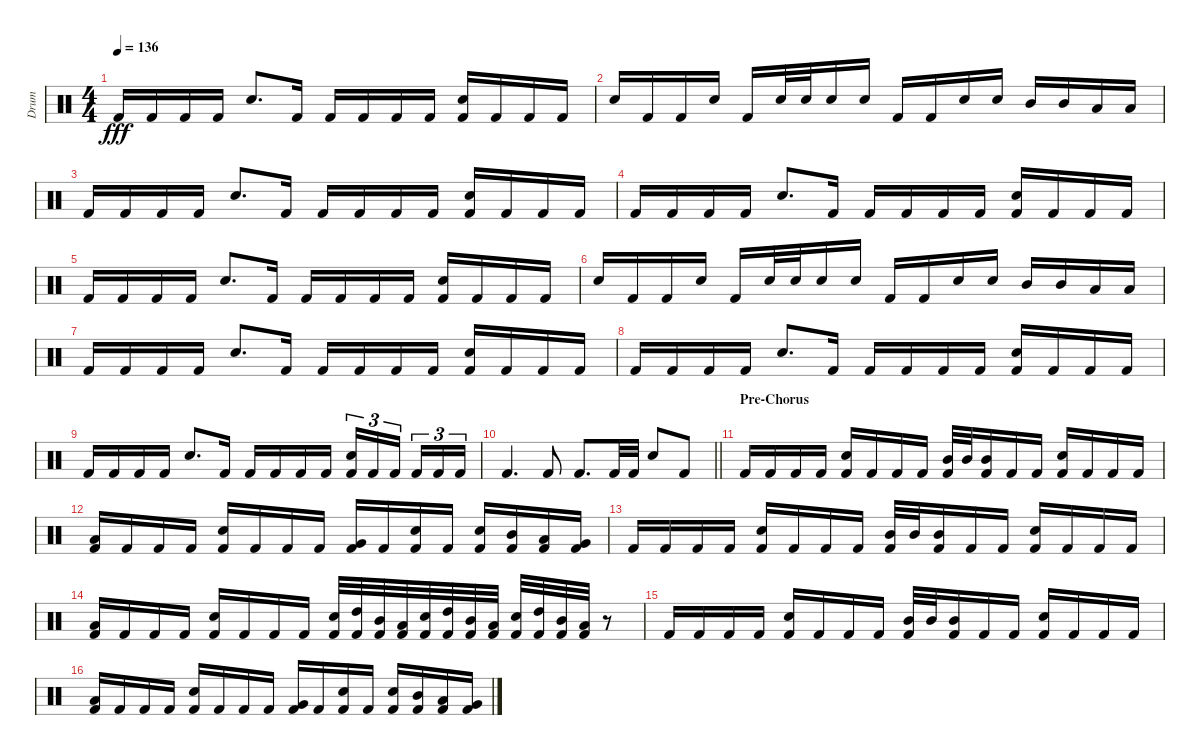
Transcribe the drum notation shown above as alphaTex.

\track ("Drum" "Drum") {instrument percussion}
\staff {score}
\articulation defaults
\ts (4 4)
\tempo 136
\clef neutral
\ks c "Kick (hit) 2".16{dy fff} "Kick (hit) 2".16 "Kick (hit) 2".16 "Kick (hit) 2".16 "Electric Snare (hit)".8{d} "Kick (hit) 2".16 "Kick (hit) 2".16 "Kick (hit) 2".16 "Kick (hit) 2".16 "Kick (hit) 2".16
("Electric Snare (hit)" "Kick (hit) 2").16 "Kick (hit) 2".16 "Kick (hit) 2".16 "Kick (hit) 2".16 |
"Electric Snare (hit)".16 "Kick (hit) 2".16 "Kick (hit) 2".16 "Electric Snare (hit)".16 "Kick (hit) 2".16 "Electric Snare (hit)".32 "Electric Snare (hit)".32 "Electric Snare (hit)".16 "Electric Snare (hit)".16 "Kick (hit) 2".16 "Kick (hit) 2".16 "Electric Snare (hit)".16 "Electric Snare (hit)".16 "Mid Tom (hit)".16 "Mid Tom (hit)".16 "Low Tom (hit)".16 "Low Tom (hit)".16 |
"Kick (hit) 2".16 "Kick (hit) 2".16 "Kick (hit) 2".16 "Kick (hit) 2".16 "Electric Snare (hit)".8{d} "Kick (hit) 2".16 "Kick (hit) 2".16 "Kick (hit) 2".16 "Kick (hit) 2".16 "Kick (hit) 2".16 ("Electric Snare (hit)" "Kick (hit) 2").16 "Kick (hit) 2".16 "Kick (hit) 2".16 "Kick (hit) 2".16 |
"Kick (hit) 2".16 "Kick (hit) 2".16 "Kick (hit) 2".16 "Kick (hit) 2".16 "Electric Snare (hit)".8{d} "Kick (hit) 2".16 "Kick (hit) 2".16 "Kick (hit) 2".16 "Kick (hit) 2".16 "Kick (hit) 2".16 ("Electric Snare (hit)" "Kick (hit) 2").16 "Kick (hit) 2".16 "Kick (hit) 2".16 "Kick (hit) 2".16 |
"Kick (hit) 2".16 "Kick (hit) 2".16 "Kick (hit) 2".16 "Kick (hit) 2".16 "Electric Snare (hit)".8{d} "Kick (hit) 2".16 "Kick (hit) 2".16 "Kick (hit) 2".16 "Kick (hit) 2".16 "Kick (hit) 2".16 ("Electric Snare (hit)" "Kick (hit) 2").16 "Kick (hit) 2".16 "Kick (hit) 2".16 "Kick (hit) 2".16 |
"Electric Snare (hit)".16 "Kick (hit) 2".16 "Kick (hit) 2".16 "Electric Snare (hit)".16 "Kick (hit) 2".16 "Electric Snare (hit)".32 "Electric Snare (hit)".32 "Electric Snare (hit)".16 "Electric Snare (hit)".16 "Kick (hit) 2".16 "Kick (hit) 2".16 "Electric Snare (hit)".16 "Electric Snare (hit)".16 "Mid Tom (hit)".16 "Mid Tom (hit)".16 "Low Tom (hit)".16 "Low Tom (hit)".16 |
"Kick (hit) 2".16 "Kick (hit) 2".16 "Kick (hit) 2".16 "Kick (hit) 2".16 "Electric Snare (hit)".8{d} "Kick (hit) 2".16 "Kick (hit) 2".16 "Kick (hit) 2".16 "Kick (hit) 2".16 "Kick (hit) 2".16 ("Electric Snare (hit)" "Kick (hit) 2").16 "Kick (hit) 2".16 "Kick (hit) 2".16 "Kick (hit) 2".16 |
"Kick (hit) 2".16 "Kick (hit) 2".16 "Kick (hit) 2".16 "Kick (hit) 2".16 "Electric Snare (hit)".8{d} "Kick (hit) 2".16 "Kick (hit) 2".16 "Kick (hit) 2".16 "Kick (hit) 2".16 "Kick (hit) 2".16 ("Electric Snare (hit)" "Kick (hit) 2").16 "Kick (hit) 2".16 "Kick (hit) 2".16 "Kick (hit) 2".16 |
"Kick (hit) 2".16 "Kick (hit) 2".16 "Kick (hit) 2".16 "Kick (hit) 2".16 "Electric Snare (hit)".8{d} "Kick (hit) 2".16 "Kick (hit) 2".16 "Kick (hit) 2".16 "Kick (hit) 2".16 "Kick (hit) 2".16 ("Electric Snare (hit)" "Kick (hit) 2").16{tu (3 2)} "Kick (hit) 2".16{tu (3 2)} "Kick (hit) 2".16{tu (3 2) beam splitsecondary} "Kick (hit) 2".16{tu (3 2)} "Kick (hit) 2".16{tu (3 2)} "Kick (hit) 2".16{tu (3 2)} |
\barLineRight lightlight "Kick (hit) 2".4{d} "Kick (hit) 2".8 "Kick (hit) 2".8{d} "Kick (hit) 2".32 "Kick (hit) 2".32 "Electric Snare (hit)".8 "Kick (hit) 2".8
|
\section ("" "Pre-Chorus")
"Kick (hit) 2".16 "Kick (hit) 2".16 "Kick (hit) 2".16 "Kick (hit) 2".16 ("Electric Snare (hit)" "Kick (hit) 2").16 "Kick (hit) 2".16 "Kick (hit) 2".16 "Kick (hit) 2".16 ("Mid Tom (hit)" "Kick (hit) 2").32 "Mid Tom (hit)".32 ("Mid Tom (hit)" "Kick (hit) 2").16 "Kick (hit) 2".16 "Kick (hit) 2".16 ("Electric Snare (hit)" "Kick (hit) 2").16 "Kick (hit) 2".16 "Kick (hit) 2".16 "Kick (hit) 2".16 |
("Low Tom (hit)" "Kick (hit) 2").16 "Kick (hit) 2".16 "Kick (hit) 2".16 "Kick (hit) 2".16 ("Electric Snare (hit)" "Kick (hit) 2").16 "Kick (hit) 2".16 "Kick (hit) 2".16 "Kick (hit) 2".16 ("Very Low Tom (hit)" "Kick (hit) 2").16 "Kick (hit) 2".16 ("Electric Snare (hit)" "Kick (hit) 2").16 "Kick (hit) 2".16 ("Electric Snare (hit)" "Kick (hit) 2").16 ("Mid Tom (hit)" "Kick (hit) 2").16 ("Low Tom (hit)" "Kick (hit) 2").16 ("Very Low Tom (hit)" "Kick (hit) 2").16 |
"Kick (hit) 2".16 "Kick (hit) 2".16 "Kick (hit) 2".16 "Kick (hit) 2".16 ("Electric Snare (hit)" "Kick (hit) 2").16 "Kick (hit) 2".16 "Kick (hit) 2".16 "Kick (hit) 2".16 ("Mid Tom (hit)" "Kick (hit) 2").32 "Mid Tom (hit)".32 ("Mid Tom (hit)" "Kick (hit) 2").16 "Kick (hit) 2".16 "Kick (hit) 2".16 ("Electric Snare (hit)" "Kick (hit) 2").16 "Kick (hit) 2".16 "Kick (hit) 2".16 "Kick (hit) 2".16 |
("Low Tom (hit)" "Kick (hit) 2").16 "Kick (hit) 2".16 "Kick (hit) 2".16 "Kick (hit) 2".16 ("Electric Snare (hit)" "Kick (hit) 2").16 "Kick (hit) 2".16 "Kick (hit) 2".16 "Kick (hit) 2".16 ("Electric Snare (hit)" "Kick (hit) 2").32 ("High Tom (hit)" "Kick (hit) 2").32 ("Mid Tom (hit)" "Kick (hit) 2").32 ("Low Tom (hit)" "Kick (hit) 2").32 ("Electric Snare (hit)" "Kick (hit) 2").32 ("High Tom (hit)" "Kick (hit) 2").32 ("Mid Tom (hit)" "Kick (hit) 2").32 ("Low Tom (hit)" "Kick (hit) 2").32 ("Electric Snare (hit)" "Kick (hit) 2").32 ("High Tom (hit)" "Kick (hit) 2").32 ("Mid Tom (hit)" "Kick (hit) 2").32 ("Low Tom (hit)" "Kick (hit) 2").32 r.8 |
"Kick (hit) 2".16 "Kick (hit) 2".16 "Kick (hit) 2".16 "Kick (hit) 2".16 ("Electric Snare (hit)" "Kick (hit) 2").16 "Kick (hit) 2".16 "Kick (hit) 2".16 "Kick (hit) 2".16 ("Mid Tom (hit)" "Kick (hit) 2").32 "Mid Tom (hit)".32 ("Mid Tom (hit)" "Kick (hit) 2").16 "Kick (hit) 2".16 "Kick (hit) 2".16 ("Electric Snare (hit)" "Kick (hit) 2").16 "Kick (hit) 2".16 "Kick (hit) 2".16 "Kick (hit) 2".16 |
("Low Tom (hit)" "Kick (hit) 2").16 "Kick (hit) 2".16 "Kick (hit) 2".16 "Kick (hit) 2".16 ("Electric Snare (hit)" "Kick (hit) 2").16 "Kick (hit) 2".16 "Kick (hit) 2".16 "Kick (hit) 2".16 ("Very Low Tom (hit)" "Kick (hit) 2").16 "Kick (hit) 2".16 ("Electric Snare (hit)" "Kick (hit) 2").16 "Kick (hit) 2".16 ("Electric Snare (hit)" "Kick (hit) 2").16 ("Mid Tom (hit)" "Kick (hit) 2").16 ("Low Tom (hit)" "Kick (hit) 2").16 ("Very Low Tom (hit)" "Kick (hit) 2").16
